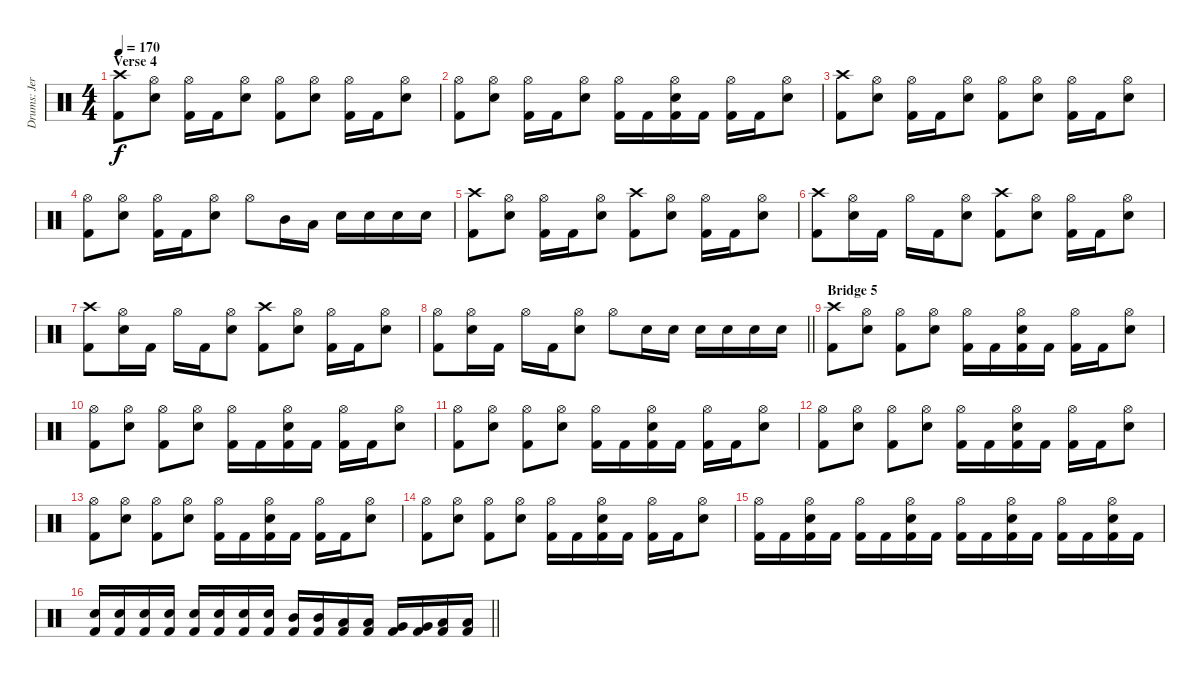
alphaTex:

\track ("Drums: Jere Luokkamäki" "Drums: Jer") {instrument percussion}
\staff {score}
\articulation defaults
\ts (4 4)
\section ("" "Verse 4")
\tempo 170
\clef neutral
\ks aminor
("Crash high (hit)" "Kick (hit) 2").8{dy f} ("Hi-Hat (open)" "Electric Snare (hit)").8 ("Hi-Hat (open)" "Kick (hit) 2").16 "Kick (hit) 2".16 ("Hi-Hat (open)" "Electric Snare (hit)").8 ("Hi-Hat (open)" "Kick (hit) 2").8 ("Hi-Hat (open)" "Electric Snare (hit)").8 ("Hi-Hat (open)" "Kick (hit) 2").16 "Kick (hit) 2".16 ("Hi-Hat (open)" "Electric Snare (hit)").8 |
("Hi-Hat (open)" "Kick (hit) 2").8 ("Hi-Hat (open)" "Electric Snare (hit)").8 ("Hi-Hat (open)" "Kick (hit) 2").16 "Kick (hit) 2".16 ("Hi-Hat (open)" "Electric Snare (hit)").8 ("Hi-Hat (open)" "Kick (hit) 2").16 "Kick (hit) 2".16 ("Hi-Hat (open)" "Electric Snare (hit)" "Kick (hit) 2").16 "Kick (hit) 2".16 ("Hi-Hat (open)" "Kick (hit) 2").16 "Kick (hit) 2".16 ("Hi-Hat (open)" "Electric Snare (hit)").8 |
("Crash high (hit)" "Kick (hit) 2").8 ("Hi-Hat (open)" "Electric Snare (hit)").8 ("Hi-Hat (open)" "Kick (hit) 2").16 "Kick (hit) 2".16 ("Hi-Hat (open)" "Electric Snare (hit)").8 ("Hi-Hat (open)" "Kick (hit) 2").8 ("Hi-Hat (open)" "Electric Snare (hit)").8 ("Hi-Hat (open)" "Kick (hit) 2").16 "Kick (hit) 2".16 ("Hi-Hat (open)" "Electric Snare (hit)").8 |
("Hi-Hat (open)" "Kick (hit) 2").8 ("Hi-Hat (open)" "Electric Snare (hit)").8 ("Hi-Hat (open)" "Kick (hit) 2").16 "Kick (hit) 2".16 ("Hi-Hat (open)" "Electric Snare (hit)").8 "Hi-Hat (open)".8 "Mid Tom (hit)".16 "Low Tom (hit)".16 "Electric Snare (hit)".16 "Electric Snare (hit)".16 "Electric Snare (hit)".16 "Electric Snare (hit)".16 |
("Crash high (hit)" "Kick (hit) 2").8 ("Hi-Hat (open)" "Electric Snare (hit)").8 ("Hi-Hat (open)" "Kick (hit) 2").16 "Kick (hit) 2".16 ("Hi-Hat (open)" "Electric Snare (hit)").8 ("Crash high (hit)" "Kick (hit) 2").8 ("Hi-Hat (open)" "Electric Snare (hit)").8 ("Hi-Hat (open)" "Kick (hit) 2").16 "Kick (hit) 2".16 ("Hi-Hat (open)" "Electric Snare (hit)").8 |
("Crash high (hit)" "Kick (hit) 2").8 ("Hi-Hat (open)" "Electric Snare (hit)").16 "Kick (hit) 2".16 "Hi-Hat (open)".16 "Kick (hit) 2".16 ("Hi-Hat (open)" "Electric Snare (hit)").8 ("Crash high (hit)" "Kick (hit) 2").8 ("Hi-Hat (open)" "Electric Snare (hit)").8 ("Hi-Hat (open)" "Kick (hit) 2").16 "Kick (hit) 2".16 ("Hi-Hat (open)" "Electric Snare (hit)").8 |
("Crash high (hit)" "Kick (hit) 2").8 ("Hi-Hat (open)" "Electric Snare (hit)").16 "Kick (hit) 2".16 "Hi-Hat (open)".16 "Kick (hit) 2".16 ("Hi-Hat (open)" "Electric Snare (hit)").8 ("Crash high (hit)" "Kick (hit) 2").8 ("Hi-Hat (open)" "Electric Snare (hit)").8 ("Hi-Hat (open)" "Kick (hit) 2").16 "Kick (hit) 2".16 ("Hi-Hat (open)" "Electric Snare (hit)").8 |
\barLineRight lightlight
("Hi-Hat (open)" "Kick (hit) 2").8 ("Hi-Hat (open)" "Electric Snare (hit)").16 "Kick (hit) 2".16 "Hi-Hat (open)".16 "Kick (hit) 2".16 ("Hi-Hat (open)" "Electric Snare (hit)").8 "Hi-Hat (open)".8 "Electric Snare (hit)".16 "Electric Snare (hit)".16 "Electric Snare (hit)".16 "Electric Snare (hit)".16 "Electric Snare (hit)".16 "Electric Snare (hit)".16 |
\section ("" "Bridge 5")
("Crash high (hit)" "Kick (hit) 2").8 ("Hi-Hat (open)" "Electric Snare (hit)").8 ("Hi-Hat (open)" "Kick (hit) 2").8 ("Hi-Hat (open)" "Electric Snare (hit)").8 ("Hi-Hat (open)" "Kick (hit) 2").16 "Kick (hit) 2".16 ("Hi-Hat (open)" "Electric Snare (hit)" "Kick (hit) 2").16 "Kick (hit) 2".16 ("Hi-Hat (open)" "Kick (hit) 2").16 "Kick (hit) 2".16 ("Hi-Hat (open)" "Electric Snare (hit)").8 |
("Hi-Hat (open)" "Kick (hit) 2").8 ("Hi-Hat (open)" "Electric Snare (hit)").8 ("Hi-Hat (open)" "Kick (hit) 2").8 ("Hi-Hat (open)" "Electric Snare (hit)").8 ("Hi-Hat (open)" "Kick (hit) 2").16 "Kick (hit) 2".16 ("Hi-Hat (open)" "Electric Snare (hit)" "Kick (hit) 2").16 "Kick (hit) 2".16 ("Hi-Hat (open)" "Kick (hit) 2").16 "Kick (hit) 2".16 ("Hi-Hat (open)" "Electric Snare (hit)").8 |
("Hi-Hat (open)" "Kick (hit) 2").8 ("Hi-Hat (open)" "Electric Snare (hit)").8 ("Hi-Hat (open)" "Kick (hit) 2").8 ("Hi-Hat (open)" "Electric Snare (hit)").8 ("Hi-Hat (open)" "Kick (hit) 2").16 "Kick (hit) 2".16 ("Hi-Hat (open)" "Electric Snare (hit)" "Kick (hit) 2").16 "Kick (hit) 2".16 ("Hi-Hat (open)" "Kick (hit) 2").16 "Kick (hit) 2".16 ("Hi-Hat (open)" "Electric Snare (hit)").8 |
("Hi-Hat (open)" "Kick (hit) 2").8 ("Hi-Hat (open)" "Electric Snare (hit)").8 ("Hi-Hat (open)" "Kick (hit) 2").8 ("Hi-Hat (open)" "Electric Snare (hit)").8 ("Hi-Hat (open)" "Kick (hit) 2").16 "Kick (hit) 2".16 ("Hi-Hat (open)" "Electric Snare (hit)" "Kick (hit) 2").16 "Kick (hit) 2".16 ("Hi-Hat (open)" "Kick (hit) 2").16 "Kick (hit) 2".16 ("Hi-Hat (open)" "Electric Snare (hit)").8 |
("Hi-Hat (open)" "Kick (hit) 2").8 ("Hi-Hat (open)" "Electric Snare (hit)").8 ("Hi-Hat (open)" "Kick (hit) 2").8 ("Hi-Hat (open)" "Electric Snare (hit)").8 ("Hi-Hat (open)" "Kick (hit) 2").16 "Kick (hit) 2".16 ("Hi-Hat (open)" "Electric Snare (hit)" "Kick (hit) 2").16 "Kick (hit) 2".16 ("Hi-Hat (open)" "Kick (hit) 2").16 "Kick (hit) 2".16 ("Hi-Hat (open)" "Electric Snare (hit)").8 |
("Hi-Hat (open)" "Kick (hit) 2").8 ("Hi-Hat (open)" "Electric Snare (hit)").8 ("Hi-Hat (open)" "Kick (hit) 2").8 ("Hi-Hat (open)" "Electric Snare (hit)").8 ("Hi-Hat (open)" "Kick (hit) 2").16 "Kick (hit) 2".16 ("Hi-Hat (open)" "Electric Snare (hit)" "Kick (hit) 2").16 "Kick (hit) 2".16 ("Hi-Hat (open)" "Kick (hit) 2").16 "Kick (hit) 2".16 ("Hi-Hat (open)" "Electric Snare (hit)").8 |
("Hi-Hat (open)" "Kick (hit) 2").16 "Kick (hit) 2".16 ("Hi-Hat (open)" "Electric Snare (hit)" "Kick (hit) 2").16 "Kick (hit) 2".16 ("Hi-Hat (open)" "Kick (hit) 2").16 "Kick (hit) 2".16 ("Hi-Hat (open)" "Electric Snare (hit)" "Kick (hit) 2").16 "Kick (hit) 2".16 ("Hi-Hat (open)" "Kick (hit) 2").16 "Kick (hit) 2".16 ("Hi-Hat (open)" "Electric Snare (hit)" "Kick (hit) 2").16 "Kick (hit) 2".16 ("Hi-Hat (open)" "Kick (hit) 2").16 "Kick (hit) 2".16 ("Hi-Hat (open)" "Electric Snare (hit)" "Kick (hit) 2").16 "Kick (hit) 2".16 |
\barLineRight lightlight
("Electric Snare (hit)" "Kick (hit) 2").16 ("Electric Snare (hit)" "Kick (hit) 2").16 ("Electric Snare (hit)" "Kick (hit) 2").16 ("Electric Snare (hit)" "Kick (hit) 2").16 ("Electric Snare (hit)" "Kick (hit) 2").16 ("Electric Snare (hit)" "Kick (hit) 2").16 ("Electric Snare (hit)" "Kick (hit) 2").16 ("Electric Snare (hit)" "Kick (hit) 2").16 ("Mid Tom (hit)" "Kick (hit) 2").16 ("Mid Tom (hit)" "Kick (hit) 2").16 ("Low Tom (hit)" "Kick (hit) 2").16 ("Low Tom (hit)" "Kick (hit) 2").16 ("Very Low Tom (hit)" "Kick (hit) 2").16 ("Very Low Tom (hit)" "Kick (hit) 2").16 ("Low Tom (hit)" "Kick (hit) 2").16 ("Low Tom (hit)" "Kick (hit) 2").16
